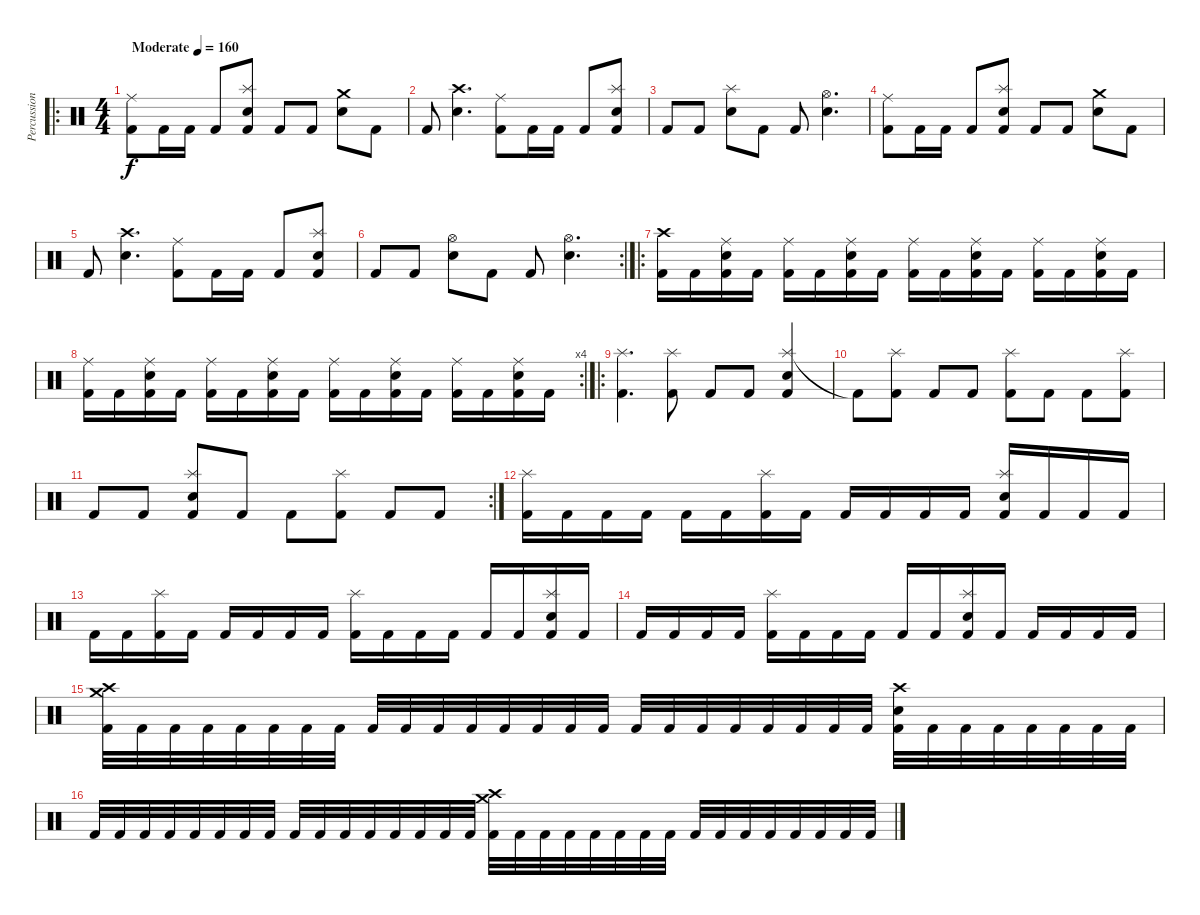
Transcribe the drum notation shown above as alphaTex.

\track ("Percussion" "Percussion") {instrument percussion}
\staff {score}
\articulation defaults
\ro
\ts (4 4)
\tempo (160 "Moderate")
\clef neutral
\ks c
("Ride (middle)" "Kick (hit) 2").8{dy f} "Kick (hit) 2".16 "Kick (hit) 2".16 "Kick (hit) 2".8 ("Splash (hit)" "Snare (hit) 2" "Kick (hit) 2").8 "Kick (hit) 2".8 "Kick (hit) 2".8 ("Crash medium (hit)" "Snare (hit) 2").8 "Kick (hit) 2".8 |
"Kick (hit) 2".8 ("Crash high (hit)" "Snare (hit) 2").4{d} ("Ride (middle)" "Kick (hit) 2").8 "Kick (hit) 2".16 "Kick (hit) 2".16 "Kick (hit) 2".8 ("Splash (hit)" "Snare (hit) 2" "Kick (hit) 2").8 |
"Kick (hit) 2".8 "Kick (hit) 2".8 ("Splash (hit)" "Snare (hit) 2").8 "Kick (hit) 2".8 "Kick (hit) 2".8 ("Hi-Hat (open)" "Snare (hit) 2").4{d} |
("Ride (middle)" "Kick (hit) 2").8 "Kick (hit) 2".16 "Kick (hit) 2".16 "Kick (hit) 2".8 ("Splash (hit)" "Snare (hit) 2" "Kick (hit) 2").8 "Kick (hit) 2".8 "Kick (hit) 2".8 ("Crash medium (hit)" "Snare (hit) 2").8 "Kick (hit) 2".8 |
"Kick (hit) 2".8 ("Crash high (hit)" "Snare (hit) 2").4{d} ("Ride (middle)" "Kick (hit) 2").8 "Kick (hit) 2".16 "Kick (hit) 2".16 "Kick (hit) 2".8 ("Splash (hit)" "Snare (hit) 2" "Kick (hit) 2").8 |
\rc 2 "Kick (hit) 2".8 "Kick (hit) 2".8
("Hi-Hat (open)" "Snare (hit) 2").8 "Kick (hit) 2".8 "Kick (hit) 2".8 ("Hi-Hat (open)" "Snare (hit) 2").4{d} |
\ro
("Crash high (hit)" "Kick (hit) 2").16 "Kick (hit) 2".16 ("Ride (middle)" "Snare (hit) 2" "Kick (hit) 2").16 "Kick (hit) 2".16 ("Ride (middle)" "Kick (hit) 2").16 "Kick (hit) 2".16 ("Ride (middle)" "Snare (hit) 2" "Kick (hit) 2").16 "Kick (hit) 2".16 ("Ride (middle)" "Kick (hit) 2").16 "Kick (hit) 2".16 ("Ride (middle)" "Snare (hit) 2" "Kick (hit) 2").16 "Kick (hit) 2".16 ("Ride (middle)" "Kick (hit) 2").16 "Kick (hit) 2".16 ("Ride (middle)" "Snare (hit) 2" "Kick (hit) 2").16 "Kick (hit) 2".16 |
\rc 4
("Ride (middle)" "Kick (hit) 2").16 "Kick (hit) 2".16 ("Ride (middle)" "Snare (hit) 2" "Kick (hit) 2").16 "Kick (hit) 2".16 ("Ride (middle)" "Kick (hit) 2").16 "Kick (hit) 2".16 ("Ride (middle)" "Snare (hit) 2" "Kick (hit) 2").16 "Kick (hit) 2".16 ("Ride (middle)" "Kick (hit) 2").16 "Kick (hit) 2".16 ("Ride (middle)" "Snare (hit) 2" "Kick (hit) 2").16 "Kick (hit) 2".16 ("Ride (middle)" "Kick (hit) 2").16 "Kick (hit) 2".16 ("Ride (middle)" "Snare (hit) 2" "Kick (hit) 2").16 "Kick (hit) 2".16 |
\ro
("Splash (hit)" "Kick (hit) 2").4{d} ("Splash (hit)" "Kick (hit) 2").8 "Kick (hit) 2".8 "Kick (hit) 2".8 ("Splash (hit)" "Snare (hit) 2" "Kick (hit) 2").4 |
"Kick (hit) 2"{t}.8 ("Splash (hit)" "Kick (hit) 2").8 "Kick (hit) 2".8 "Kick (hit) 2".8 ("Splash (hit)" "Kick (hit) 2").8 "Kick (hit) 2".8 "Kick (hit) 2".8 ("Splash (hit)" "Kick (hit) 2").8 |
\rc 2 "Kick (hit) 2".8 "Kick (hit) 2".8
("Splash (hit)" "Snare (hit) 2" "Kick (hit) 2").8 "Kick (hit) 2".8 "Kick (hit) 2".8 ("Splash (hit)" "Kick (hit) 2").8 "Kick (hit) 2".8 "Kick (hit) 2".8 |
("Splash (hit)" "Kick (hit) 2").16 "Kick (hit) 2".16 "Kick (hit) 2".16 "Kick (hit) 2".16 "Kick (hit) 2".16 "Kick (hit) 2".16 ("Splash (hit)" "Kick (hit) 2").16 "Kick (hit) 2".16 "Kick (hit) 2".16 "Kick (hit) 2".16 "Kick (hit) 2".16 "Kick (hit) 2".16 ("Splash (hit)" "Snare (hit) 2" "Kick (hit) 2").16 "Kick (hit) 2".16 "Kick (hit) 2".16 "Kick (hit) 2".16 |
"Kick (hit) 2".16 "Kick (hit) 2".16 ("Splash (hit)" "Kick (hit) 2").16 "Kick (hit) 2".16 "Kick (hit) 2".16 "Kick (hit) 2".16 "Kick (hit) 2".16 "Kick (hit) 2".16 ("Splash (hit)" "Kick (hit) 2").16 "Kick (hit) 2".16 "Kick (hit) 2".16 "Kick (hit) 2".16 "Kick (hit) 2".16 "Kick (hit) 2".16 ("Splash (hit)" "Snare (hit) 2" "Kick (hit) 2").16 "Kick (hit) 2".16 |
"Kick (hit) 2".16 "Kick (hit) 2".16 "Kick (hit) 2".16 "Kick (hit) 2".16 ("Splash (hit)" "Kick (hit) 2").16 "Kick (hit) 2".16 "Kick (hit) 2".16 "Kick (hit) 2".16 "Kick (hit) 2".16 "Kick (hit) 2".16 ("Splash (hit)" "Snare (hit) 2" "Kick (hit) 2").16 "Kick (hit) 2".16 "Kick (hit) 2".16 "Kick (hit) 2".16 "Kick (hit) 2".16 "Kick (hit) 2".16 |
("Crash high (hit)" "Crash medium (hit)" "Kick (hit) 2").32 "Kick (hit) 2".32 "Kick (hit) 2".32 "Kick (hit) 2".32 "Kick (hit) 2".32 "Kick (hit) 2".32 "Kick (hit) 2".32 "Kick (hit) 2".32 "Kick (hit) 2".32 "Kick (hit) 2".32 "Kick (hit) 2".32 "Kick (hit) 2".32 "Kick (hit) 2".32 "Kick (hit) 2".32 "Kick (hit) 2".32 "Kick (hit) 2".32 "Kick (hit) 2".32 "Kick (hit) 2".32 "Kick (hit) 2".32 "Kick (hit) 2".32 "Kick (hit) 2".32 "Kick (hit) 2".32 "Kick (hit) 2".32 "Kick (hit) 2".32 ("Crash high (hit)" "Snare (hit) 2" "Kick (hit) 2").32 "Kick (hit) 2".32 "Kick (hit) 2".32 "Kick (hit) 2".32 "Kick (hit) 2".32 "Kick (hit) 2".32 "Kick (hit) 2".32 "Kick (hit) 2".32 |
"Kick (hit) 2".32 "Kick (hit) 2".32 "Kick (hit) 2".32 "Kick (hit) 2".32 "Kick (hit) 2".32 "Kick (hit) 2".32 "Kick (hit) 2".32 "Kick (hit) 2".32 "Kick (hit) 2".32 "Kick (hit) 2".32 "Kick (hit) 2".32 "Kick (hit) 2".32 "Kick (hit) 2".32 "Kick (hit) 2".32 "Kick (hit) 2".32 "Kick (hit) 2".32 ("Crash high (hit)" "Crash medium (hit)" "Kick (hit) 2").32 "Kick (hit) 2".32 "Kick (hit) 2".32 "Kick (hit) 2".32 "Kick (hit) 2".32 "Kick (hit) 2".32 "Kick (hit) 2".32 "Kick (hit) 2".32 "Kick (hit) 2".32 "Kick (hit) 2".32 "Kick (hit) 2".32 "Kick (hit) 2".32 "Kick (hit) 2".32 "Kick (hit) 2".32 "Kick (hit) 2".32 "Kick (hit) 2".32
